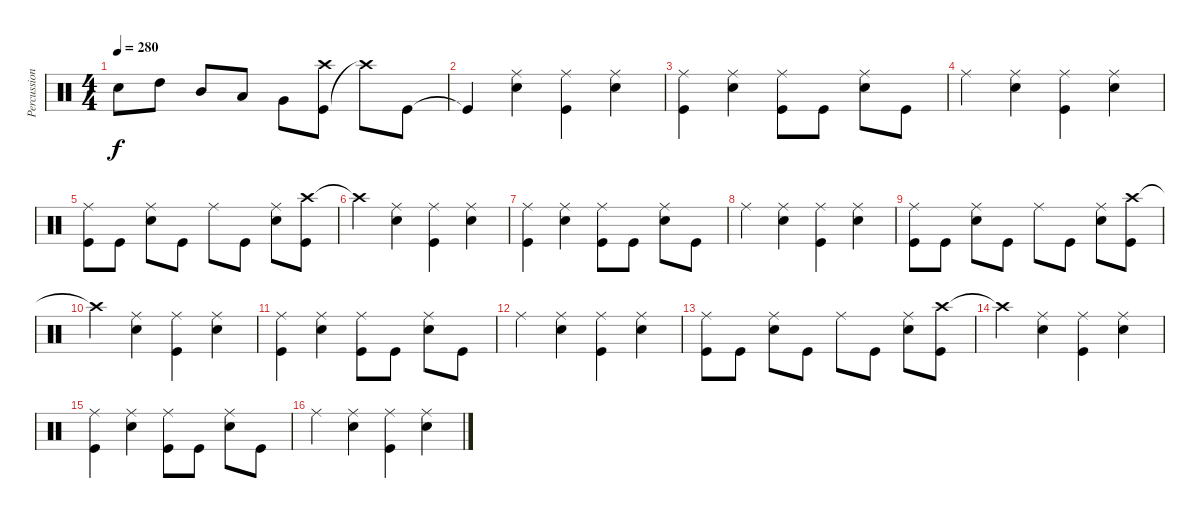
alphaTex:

\track ("Percussion" "Percussion") {instrument percussion}
\staff {score}
\articulation defaults
\ts (4 4)
\tempo 280
\clef neutral
\ks c "Electric Snare (hit)".8{dy f} "High Tom (hit)".8 "Mid Tom (hit)".8 "Low Tom (hit)".8 "Very Low Tom (hit)".8
("Kick (hit)" "Crash high (hit)").8 "Crash high (hit)"{t}.8 "Kick (hit)".8 |
"Kick (hit)"{t}.4 ("Snare (hit) 2" "Ride (middle)").4 ("Kick (hit)" "Ride (middle)").4 ("Ride (middle)" "Snare (hit) 2").4 |
("Kick (hit)" "Ride (middle)").4 ("Snare (hit) 2" "Ride (middle)").4 ("Kick (hit)" "Ride (middle)").8 "Kick (hit)".8 ("Snare (hit) 2" "Ride (middle)").8 "Kick (hit)".8 |
"Ride (middle)".4 ("Snare (hit) 2" "Ride (middle)").4 ("Kick (hit)" "Ride (middle)").4 ("Snare (hit) 2" "Ride (middle)").4 |
("Kick (hit)" "Ride (middle)").8 "Kick (hit)".8 ("Snare (hit) 2" "Ride (middle)").8 "Kick (hit)".8 "Ride (middle)".8 "Kick (hit)".8 ("Snare (hit) 2" "Ride (middle)").8 ("Crash high (hit)" "Kick (hit)").8 |
"Crash high (hit)"{t}.4 ("Snare (hit) 2" "Ride (middle)").4 ("Kick (hit)" "Ride (middle)").4 ("Ride (middle)" "Snare (hit) 2").4 |
("Kick (hit)" "Ride (middle)").4 ("Snare (hit) 2" "Ride (middle)").4 ("Kick (hit)" "Ride (middle)").8 "Kick (hit)".8 ("Snare (hit) 2" "Ride (middle)").8 "Kick (hit)".8 |
"Ride (middle)".4 ("Snare (hit) 2" "Ride (middle)").4 ("Kick (hit)" "Ride (middle)").4 ("Snare (hit) 2" "Ride (middle)").4 |
("Kick (hit)" "Ride (middle)").8 "Kick (hit)".8 ("Snare (hit) 2" "Ride (middle)").8 "Kick (hit)".8 "Ride (middle)".8 "Kick (hit)".8 ("Snare (hit) 2" "Ride (middle)").8 ("Crash high (hit)" "Kick (hit)").8 |
"Crash high (hit)"{t}.4 ("Snare (hit) 2" "Ride (middle)").4 ("Kick (hit)" "Ride (middle)").4 ("Ride (middle)" "Snare (hit) 2").4 |
("Kick (hit)" "Ride (middle)").4 ("Snare (hit) 2" "Ride (middle)").4 ("Kick (hit)" "Ride (middle)").8 "Kick (hit)".8 ("Snare (hit) 2" "Ride (middle)").8 "Kick (hit)".8 |
"Ride (middle)".4 ("Snare (hit) 2" "Ride (middle)").4 ("Kick (hit)" "Ride (middle)").4 ("Snare (hit) 2" "Ride (middle)").4 |
("Kick (hit)" "Ride (middle)").8 "Kick (hit)".8 ("Snare (hit) 2" "Ride (middle)").8 "Kick (hit)".8 "Ride (middle)".8 "Kick (hit)".8 ("Snare (hit) 2" "Ride (middle)").8 ("Crash high (hit)" "Kick (hit)").8 |
"Crash high (hit)"{t}.4 ("Snare (hit) 2" "Ride (middle)").4 ("Kick (hit)" "Ride (middle)").4 ("Ride (middle)" "Snare (hit) 2").4 |
("Kick (hit)" "Ride (middle)").4 ("Snare (hit) 2" "Ride (middle)").4 ("Kick (hit)" "Ride (middle)").8 "Kick (hit)".8 ("Snare (hit) 2" "Ride (middle)").8 "Kick (hit)".8 |
"Ride (middle)".4 ("Snare (hit) 2" "Ride (middle)").4 ("Kick (hit)" "Ride (middle)").4 ("Snare (hit) 2" "Ride (middle)").4
